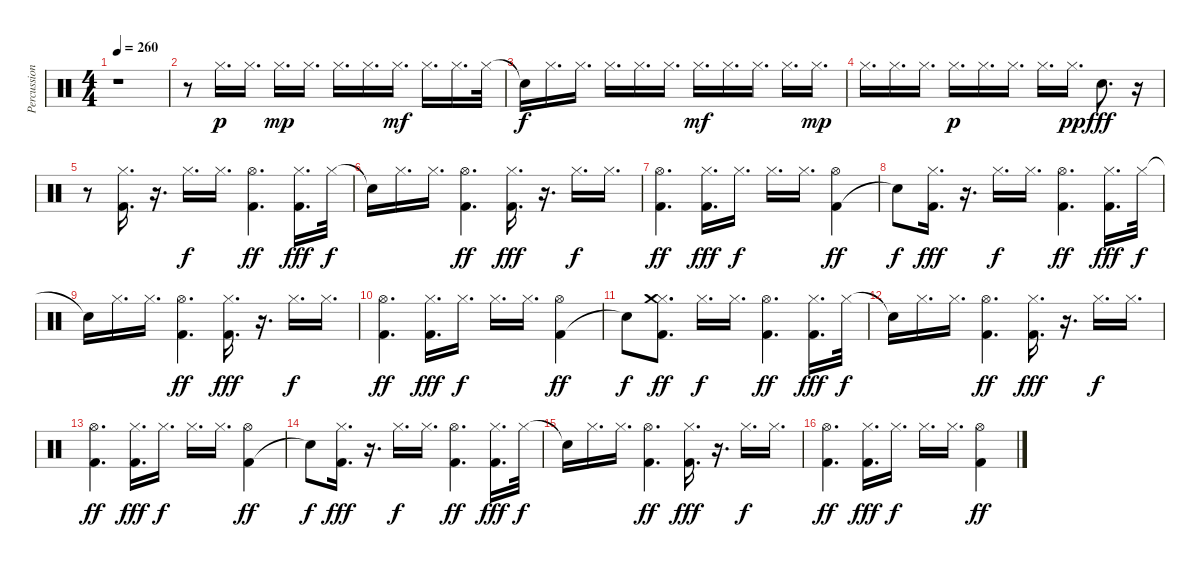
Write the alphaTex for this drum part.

\track ("Percussion" "Percussion") {instrument percussion}
\staff {score}
\articulation defaults
\ts (4 4)
\tempo 260
\clef neutral
\ks c
r.1{dy fff} |
r.8 "Hi-Hat (closed)".16{d dy p} "Hi-Hat (closed)".16{d} "Hi-Hat (closed)".16{d dy mp} "Hi-Hat (closed)".16{d} "Hi-Hat (closed)".16{d} "Hi-Hat (closed)".16{d} "Hi-Hat (closed)".16{d dy mf} "Hi-Hat (closed)".16{d} "Hi-Hat (closed)".16{d} "Hi-Hat (closed)".32 |
"Snare (hit)"{t}.16{dy f} "Hi-Hat (closed)".16{d} "Hi-Hat (closed)".16{d} "Hi-Hat (closed)".16{d} "Hi-Hat (closed)".16{d} "Hi-Hat (closed)".16{d} "Hi-Hat (closed)".16{d dy mf} "Hi-Hat (closed)".16{d} "Hi-Hat (closed)".16{d} "Hi-Hat (closed)".16{d} "Hi-Hat (closed)".16{d dy mp} |
"Hi-Hat (closed)".16{d} "Hi-Hat (closed)".16{d} "Hi-Hat (closed)".16{d} "Hi-Hat (closed)".16{d dy p} "Hi-Hat (closed)".16{d} "Hi-Hat (closed)".16{d} "Hi-Hat (closed)".16{d} "Hi-Hat (closed)".16{d dy pp} "Electric Snare (hit)".8{d dy fff} r.16 |
r.8 ("Kick (hit) 2" "Hi-Hat (closed)").16{d} r.16{d} "Hi-Hat (closed)".16{d dy f} "Hi-Hat (closed)".16{d} ("Kick (hit) 2" "Hi-Hat (open)").4{d dy ff} ("Kick (hit) 2" "Hi-Hat (closed)").16{d dy fff} "Hi-Hat (closed)".32{dy f} |
"Snare (hit)"{t}.16 "Hi-Hat (closed)".16{d} "Hi-Hat (closed)".16{d} ("Kick (hit) 2" "Hi-Hat (open)").4{d dy ff} ("Kick (hit) 2" "Hi-Hat (closed)").16{d dy fff} r.16{d} "Hi-Hat (closed)".16{d dy f} "Hi-Hat (closed)".16{d} |
("Kick (hit) 2" "Hi-Hat (open)").4{d dy ff} ("Kick (hit) 2" "Hi-Hat (closed)").16{d dy fff} "Hi-Hat (closed)".16{d dy f} "Hi-Hat (closed)".16{d} "Hi-Hat (closed)".16{d} ("Kick (hit) 2" "Hi-Hat (open)").4{dy ff} |
"Snare (hit)"{t}.8{dy f} ("Kick (hit) 2" "Hi-Hat (closed)").16{d dy fff} r.16{d} "Hi-Hat (closed)".16{d dy f} "Hi-Hat (closed)".16{d} ("Kick (hit) 2" "Hi-Hat (open)").4{d dy ff} ("Kick (hit) 2" "Hi-Hat (closed)").16{d dy fff} "Hi-Hat (closed)".32{dy f} |
"Snare (hit)"{t}.16 "Hi-Hat (closed)".16{d} "Hi-Hat (closed)".16{d} ("Kick (hit) 2" "Hi-Hat (open)").4{d dy ff} ("Kick (hit) 2" "Hi-Hat (closed)").16{d dy fff} r.16{d} "Hi-Hat (closed)".16{d dy f} "Hi-Hat (closed)".16{d} |
("Kick (hit) 2" "Hi-Hat (open)").4{d dy ff} ("Kick (hit) 2" "Hi-Hat (closed)").16{d dy fff} "Hi-Hat (closed)".16{d dy f} "Hi-Hat (closed)".16{d} "Hi-Hat (closed)".16{d} ("Kick (hit) 2" "Hi-Hat (open)").4{dy ff} |
"Snare (hit)"{t}.8{dy f} ("Kick (hit) 2" "Hi-Hat (closed)" "Crash medium (hit)").8{d dy ff} "Hi-Hat (closed)".16{d dy f} "Hi-Hat (closed)".16{d} ("Kick (hit) 2" "Hi-Hat (open)").4{d dy ff} ("Kick (hit) 2" "Hi-Hat (closed)").16{d dy fff} "Hi-Hat (closed)".32{dy f} |
"Snare (hit)"{t}.16 "Hi-Hat (closed)".16{d} "Hi-Hat (closed)".16{d} ("Kick (hit) 2" "Hi-Hat (open)").4{d dy ff} ("Kick (hit) 2" "Hi-Hat (closed)").16{d dy fff} r.16{d} "Hi-Hat (closed)".16{d dy f} "Hi-Hat (closed)".16{d} |
("Kick (hit) 2" "Hi-Hat (open)").4{d dy ff} ("Kick (hit) 2" "Hi-Hat (closed)").16{d dy fff} "Hi-Hat (closed)".16{d dy f} "Hi-Hat (closed)".16{d} "Hi-Hat (closed)".16{d} ("Kick (hit) 2" "Hi-Hat (open)").4{dy ff} |
"Snare (hit)"{t}.8{dy f} ("Kick (hit) 2" "Hi-Hat (closed)").16{d dy fff} r.16{d} "Hi-Hat (closed)".16{d dy f} "Hi-Hat (closed)".16{d} ("Kick (hit) 2" "Hi-Hat (open)").4{d dy ff} ("Kick (hit) 2" "Hi-Hat (closed)").16{d dy fff} "Hi-Hat (closed)".32{dy f} |
"Snare (hit)"{t}.16 "Hi-Hat (closed)".16{d} "Hi-Hat (closed)".16{d} ("Kick (hit) 2" "Hi-Hat (open)").4{d dy ff} ("Kick (hit) 2" "Hi-Hat (closed)").16{d dy fff} r.16{d} "Hi-Hat (closed)".16{d dy f} "Hi-Hat (closed)".16{d} |
("Kick (hit) 2" "Hi-Hat (open)").4{d dy ff} ("Kick (hit) 2" "Hi-Hat (closed)").16{d dy fff} "Hi-Hat (closed)".16{d dy f} "Hi-Hat (closed)".16{d} "Hi-Hat (closed)".16{d} ("Kick (hit) 2" "Hi-Hat (open)").4{dy ff}
